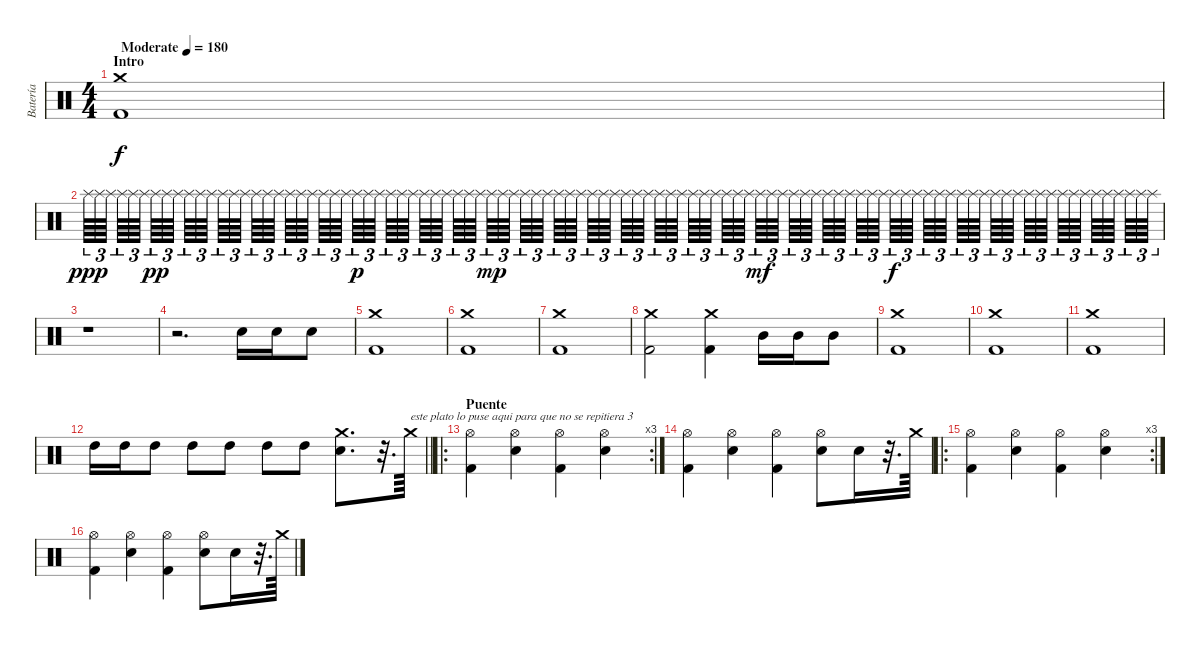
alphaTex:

\track ("Batería" "Batería") {instrument percussion}
\staff {score}
\articulation defaults
\ts (4 4)
\section ("" "Intro")
\tempo (180 "Moderate")
\clef neutral
\ks c
("Crash medium (hit)" "Kick (hit) 2").1{dy f} |
"Splash (hit)".64{tu (3 2) dy ppp} "Splash (hit)".64{tu (3 2)} "Splash (hit)".64{tu (3 2) beam splitsecondary} "Splash (hit)".64{tu (3 2)} "Splash (hit)".64{tu (3 2)} "Splash (hit)".64{tu (3 2) beam splitsecondary} "Splash (hit)".64{tu (3 2) dy pp} "Splash (hit)".64{tu (3 2)} "Splash (hit)".64{tu (3 2) beam splitsecondary} "Splash (hit)".64{tu (3 2)} "Splash (hit)".64{tu (3 2)} "Splash (hit)".64{tu (3 2) beam splitsecondary} "Splash (hit)".64{tu (3 2)} "Splash (hit)".64{tu (3 2)} "Splash (hit)".64{tu (3 2) beam splitsecondary} "Splash (hit)".64{tu (3 2)} "Splash (hit)".64{tu (3 2)} "Splash (hit)".64{tu (3 2) beam splitsecondary} "Splash (hit)".64{tu (3 2)} "Splash (hit)".64{tu (3 2)} "Splash (hit)".64{tu (3 2) beam splitsecondary} "Splash (hit)".64{tu (3 2)} "Splash (hit)".64{tu (3 2)} "Splash (hit)".64{tu (3 2)} "Splash (hit)".64{tu (3 2) dy p} "Splash (hit)".64{tu (3 2)} "Splash (hit)".64{tu (3 2) beam splitsecondary} "Splash (hit)".64{tu (3 2)} "Splash (hit)".64{tu (3 2)} "Splash (hit)".64{tu (3 2) beam splitsecondary} "Splash (hit)".64{tu (3 2)} "Splash (hit)".64{tu (3 2)} "Splash (hit)".64{tu (3 2) beam splitsecondary} "Splash (hit)".64{tu (3 2)} "Splash (hit)".64{tu (3 2)} "Splash (hit)".64{tu (3 2) beam splitsecondary} "Splash (hit)".64{tu (3 2) dy mp} "Splash (hit)".64{tu (3 2)} "Splash (hit)".64{tu (3 2) beam splitsecondary} "Splash (hit)".64{tu (3 2)} "Splash (hit)".64{tu (3 2)} "Splash (hit)".64{tu (3 2) beam splitsecondary} "Splash (hit)".64{tu (3 2)} "Splash (hit)".64{tu (3 2)} "Splash (hit)".64{tu (3 2) beam splitsecondary} "Splash (hit)".64{tu (3 2)} "Splash (hit)".64{tu (3 2)} "Splash (hit)".64{tu (3 2)} "Splash (hit)".64{tu (3 2)} "Splash (hit)".64{tu (3 2)} "Splash (hit)".64{tu (3 2) beam splitsecondary} "Splash (hit)".64{tu (3 2)} "Splash (hit)".64{tu (3 2)} "Splash (hit)".64{tu (3 2) beam splitsecondary} "Splash (hit)".64{tu (3 2)} "Splash (hit)".64{tu (3 2)} "Splash (hit)".64{tu (3 2) beam splitsecondary} "Splash (hit)".64{tu (3 2)} "Splash (hit)".64{tu (3 2)} "Splash (hit)".64{tu (3 2) beam splitsecondary} "Splash (hit)".64{tu (3 2) dy mf} "Splash (hit)".64{tu (3 2)} "Splash (hit)".64{tu (3 2) beam splitsecondary} "Splash (hit)".64{tu (3 2)} "Splash (hit)".64{tu (3 2)} "Splash (hit)".64{tu (3 2) beam splitsecondary} "Splash (hit)".64{tu (3 2)} "Splash (hit)".64{tu (3 2)} "Splash (hit)".64{tu (3 2) beam splitsecondary} "Splash (hit)".64{tu (3 2)} "Splash (hit)".64{tu (3 2)} "Splash (hit)".64{tu (3 2)} "Splash (hit)".64{tu (3 2) dy f} "Splash (hit)".64{tu (3 2)} "Splash (hit)".64{tu (3 2) beam splitsecondary} "Splash (hit)".64{tu (3 2)} "Splash (hit)".64{tu (3 2)} "Splash (hit)".64{tu (3 2) beam splitsecondary} "Splash (hit)".64{tu (3 2)} "Splash (hit)".64{tu (3 2)} "Splash (hit)".64{tu (3 2) beam splitsecondary} "Splash (hit)".64{tu (3 2)} "Splash (hit)".64{tu (3 2)} "Splash (hit)".64{tu (3 2) beam splitsecondary} "Splash (hit)".64{tu (3 2)} "Splash (hit)".64{tu (3 2)} "Splash (hit)".64{tu (3 2) beam splitsecondary} "Splash (hit)".64{tu (3 2)} "Splash (hit)".64{tu (3 2)} "Splash (hit)".64{tu (3 2) beam splitsecondary} "Splash (hit)".64{tu (3 2)} "Splash (hit)".64{tu (3 2)} "Splash (hit)".64{tu (3 2) beam splitsecondary} "Splash (hit)".64{tu (3 2)} "Splash (hit)".64{tu (3 2)} "Splash (hit)".64{tu (3 2)} |
r.1 |
r.2{d} "Snare (hit) 2".16 "Snare (hit) 2".16 "Snare (hit) 2".8 |
("Crash medium (hit)" "Kick (hit) 2").1 |
("Crash medium (hit)" "Kick (hit) 2").1 |
("Crash medium (hit)" "Kick (hit) 2").1 |
("Crash medium (hit)" "Kick (hit) 2").2 ("Crash medium (hit)" "Kick (hit) 2").4 "Mid Tom (hit)".16 "Mid Tom (hit)".16 "Mid Tom (hit)".8 |
("Crash medium (hit)" "Kick (hit) 2").1 |
("Crash medium (hit)" "Kick (hit) 2").1 |
("Crash medium (hit)" "Kick (hit) 2").1 |
\barLineRight lightlight "High Tom (hit)".16 "High Tom (hit)".16 "High Tom (hit)".8 "High Tom (hit)".8 "High Tom (hit)".8 "High Tom (hit)".8 "High Tom (hit)".8
("Crash medium (hit)" "Snare (hit) 2").8{d} r.32{d} "Crash medium (hit)".64{txt "este plato lo puse aqui para que no se repitiera 3"} |
\ro
\rc 3
\section ("" "Puente")
("Hi-Hat (open)" "Kick (hit) 2").4 ("Hi-Hat (open)" "Snare (hit) 2").4 ("Hi-Hat (open)" "Kick (hit) 2").4 ("Hi-Hat (open)" "Snare (hit) 2").4 |
("Hi-Hat (open)" "Kick (hit) 2").4 ("Hi-Hat (open)" "Snare (hit) 2").4 ("Hi-Hat (open)" "Kick (hit) 2").4 ("Hi-Hat (open)" "Snare (hit) 2").8 "Snare (hit) 2".16 r.32{d} "Crash medium (hit)".64 |
\ro
\rc 3
("Hi-Hat (open)" "Kick (hit) 2").4 ("Hi-Hat (open)" "Snare (hit) 2").4 ("Hi-Hat (open)" "Kick (hit) 2").4 ("Hi-Hat (open)" "Snare (hit) 2").4 |
("Hi-Hat (open)" "Kick (hit) 2").4 ("Hi-Hat (open)" "Snare (hit) 2").4 ("Hi-Hat (open)" "Kick (hit) 2").4 ("Hi-Hat (open)" "Snare (hit) 2").8 "Snare (hit) 2".16 r.32{d} "Crash medium (hit)".64
